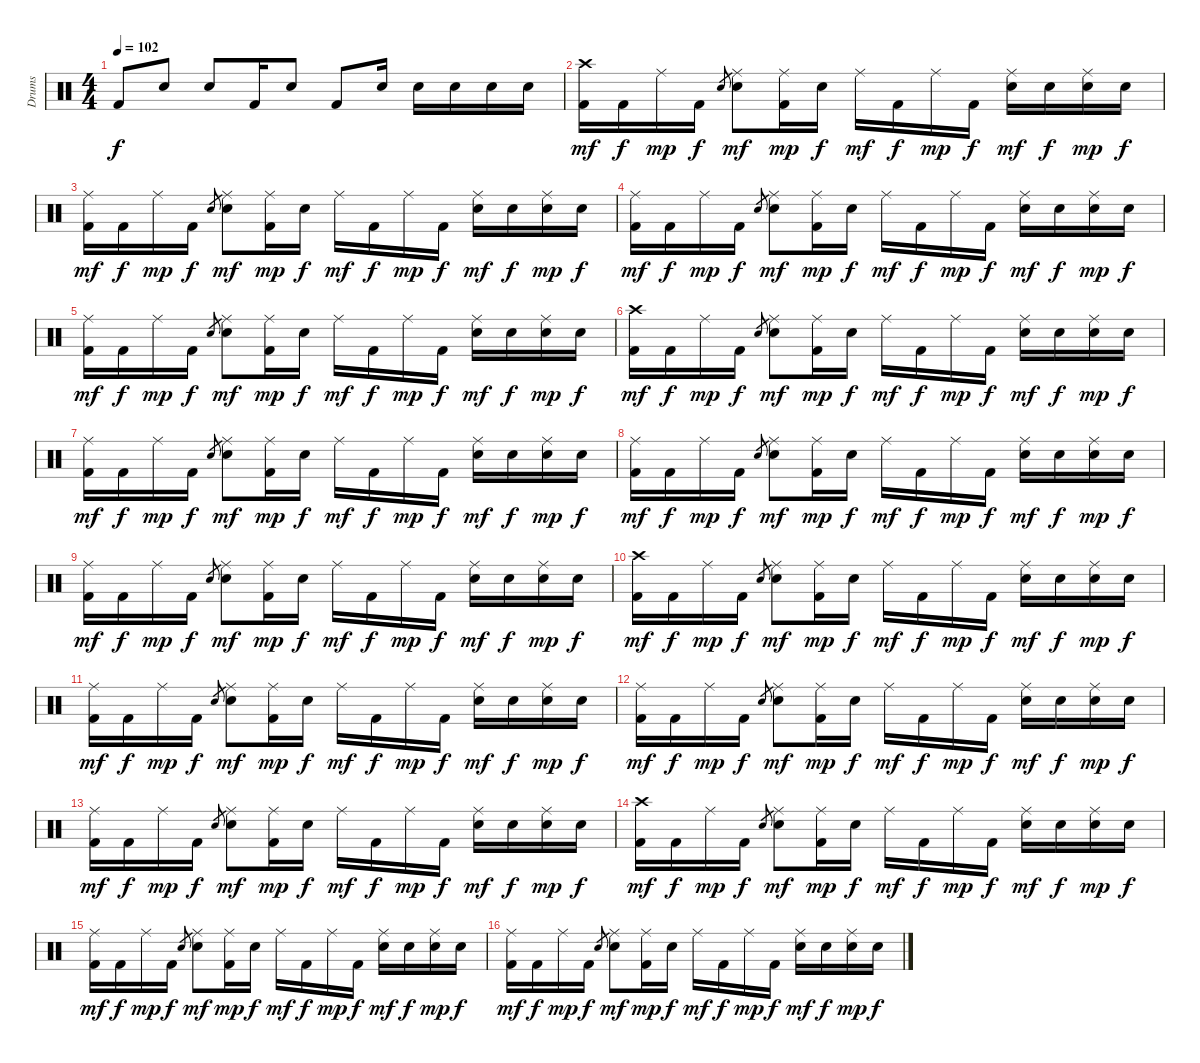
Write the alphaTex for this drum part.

\track ("Drums" "Drums") {instrument percussion}
\staff {score}
\articulation defaults
\ts (4 4)
\tempo 102
\clef neutral
\ks c "Kick (hit) 2".8{dy f} "Snare (hit) 2".8 "Snare (hit) 2".8 "Kick (hit) 2".16 "Snare (hit) 2".8 "Kick (hit) 2".8 "Snare (hit) 2".16 "Snare (hit) 2".16 "Snare (hit) 2".16 "Snare (hit) 2".16 "Snare (hit) 2".16
|
("Crash high (hit)" "Kick (hit) 2").16{dy mf} "Kick (hit) 2".16{dy f} "Ride (middle)".16{dy mp} "Kick (hit) 2".16{dy f} "Snare (hit) 2".8{gr} ("Ride (middle)" "Snare (hit) 2").8{dy mf} ("Ride (middle)" "Kick (hit) 2").16{dy mp} "Snare (hit) 2".16{dy f} "Ride (middle)".16{dy mf} "Kick (hit) 2".16{dy f} "Ride (middle)".16{dy mp} "Kick (hit) 2".16{dy f} ("Ride (middle)" "Snare (hit) 2").16{dy mf} "Snare (hit) 2".16{dy f} ("Ride (middle)" "Snare (hit) 2").16{dy mp} "Snare (hit) 2".16{dy f} |
("Ride (middle)" "Kick (hit) 2").16{dy mf} "Kick (hit) 2".16{dy f} "Ride (middle)".16{dy mp} "Kick (hit) 2".16{dy f} "Snare (hit) 2".8{gr} ("Ride (middle)" "Snare (hit) 2").8{dy mf} ("Ride (middle)" "Kick (hit) 2").16{dy mp} "Snare (hit) 2".16{dy f} "Ride (middle)".16{dy mf} "Kick (hit) 2".16{dy f} "Ride (middle)".16{dy mp} "Kick (hit) 2".16{dy f} ("Ride (middle)" "Snare (hit) 2").16{dy mf} "Snare (hit) 2".16{dy f} ("Ride (middle)" "Snare (hit) 2").16{dy mp} "Snare (hit) 2".16{dy f} |
("Ride (middle)" "Kick (hit) 2").16{dy mf} "Kick (hit) 2".16{dy f} "Ride (middle)".16{dy mp} "Kick (hit) 2".16{dy f} "Snare (hit) 2".8{gr} ("Ride (middle)" "Snare (hit) 2").8{dy mf} ("Ride (middle)" "Kick (hit) 2").16{dy mp} "Snare (hit) 2".16{dy f} "Ride (middle)".16{dy mf} "Kick (hit) 2".16{dy f} "Ride (middle)".16{dy mp} "Kick (hit) 2".16{dy f} ("Ride (middle)" "Snare (hit) 2").16{dy mf} "Snare (hit) 2".16{dy f} ("Ride (middle)" "Snare (hit) 2").16{dy mp} "Snare (hit) 2".16{dy f} |
("Ride (middle)" "Kick (hit) 2").16{dy mf} "Kick (hit) 2".16{dy f} "Ride (middle)".16{dy mp} "Kick (hit) 2".16{dy f} "Snare (hit) 2".8{gr} ("Ride (middle)" "Snare (hit) 2").8{dy mf} ("Ride (middle)" "Kick (hit) 2").16{dy mp} "Snare (hit) 2".16{dy f} "Ride (middle)".16{dy mf} "Kick (hit) 2".16{dy f} "Ride (middle)".16{dy mp} "Kick (hit) 2".16{dy f} ("Ride (middle)" "Snare (hit) 2").16{dy mf} "Snare (hit) 2".16{dy f} ("Ride (middle)" "Snare (hit) 2").16{dy mp} "Snare (hit) 2".16{dy f} |
("Crash high (hit)" "Kick (hit) 2").16{dy mf} "Kick (hit) 2".16{dy f} "Ride (middle)".16{dy mp} "Kick (hit) 2".16{dy f} "Snare (hit) 2".8{gr} ("Ride (middle)" "Snare (hit) 2").8{dy mf} ("Ride (middle)" "Kick (hit) 2").16{dy mp} "Snare (hit) 2".16{dy f} "Ride (middle)".16{dy mf} "Kick (hit) 2".16{dy f} "Ride (middle)".16{dy mp} "Kick (hit) 2".16{dy f} ("Ride (middle)" "Snare (hit) 2").16{dy mf} "Snare (hit) 2".16{dy f} ("Ride (middle)" "Snare (hit) 2").16{dy mp} "Snare (hit) 2".16{dy f} |
("Ride (middle)" "Kick (hit) 2").16{dy mf} "Kick (hit) 2".16{dy f} "Ride (middle)".16{dy mp} "Kick (hit) 2".16{dy f} "Snare (hit) 2".8{gr} ("Ride (middle)" "Snare (hit) 2").8{dy mf} ("Ride (middle)" "Kick (hit) 2").16{dy mp} "Snare (hit) 2".16{dy f} "Ride (middle)".16{dy mf} "Kick (hit) 2".16{dy f} "Ride (middle)".16{dy mp} "Kick (hit) 2".16{dy f} ("Ride (middle)" "Snare (hit) 2").16{dy mf} "Snare (hit) 2".16{dy f} ("Ride (middle)" "Snare (hit) 2").16{dy mp} "Snare (hit) 2".16{dy f} |
("Ride (middle)" "Kick (hit) 2").16{dy mf} "Kick (hit) 2".16{dy f} "Ride (middle)".16{dy mp} "Kick (hit) 2".16{dy f} "Snare (hit) 2".8{gr} ("Ride (middle)" "Snare (hit) 2").8{dy mf} ("Ride (middle)" "Kick (hit) 2").16{dy mp} "Snare (hit) 2".16{dy f} "Ride (middle)".16{dy mf} "Kick (hit) 2".16{dy f} "Ride (middle)".16{dy mp} "Kick (hit) 2".16{dy f} ("Ride (middle)" "Snare (hit) 2").16{dy mf} "Snare (hit) 2".16{dy f} ("Ride (middle)" "Snare (hit) 2").16{dy mp} "Snare (hit) 2".16{dy f} |
("Ride (middle)" "Kick (hit) 2").16{dy mf} "Kick (hit) 2".16{dy f} "Ride (middle)".16{dy mp} "Kick (hit) 2".16{dy f} "Snare (hit) 2".8{gr} ("Ride (middle)" "Snare (hit) 2").8{dy mf} ("Ride (middle)" "Kick (hit) 2").16{dy mp} "Snare (hit) 2".16{dy f} "Ride (middle)".16{dy mf} "Kick (hit) 2".16{dy f} "Ride (middle)".16{dy mp} "Kick (hit) 2".16{dy f} ("Ride (middle)" "Snare (hit) 2").16{dy mf} "Snare (hit) 2".16{dy f} ("Ride (middle)" "Snare (hit) 2").16{dy mp} "Snare (hit) 2".16{dy f} |
("Crash high (hit)" "Kick (hit) 2").16{dy mf} "Kick (hit) 2".16{dy f} "Ride (middle)".16{dy mp} "Kick (hit) 2".16{dy f} "Snare (hit) 2".8{gr} ("Ride (middle)" "Snare (hit) 2").8{dy mf} ("Ride (middle)" "Kick (hit) 2").16{dy mp} "Snare (hit) 2".16{dy f} "Ride (middle)".16{dy mf} "Kick (hit) 2".16{dy f} "Ride (middle)".16{dy mp} "Kick (hit) 2".16{dy f} ("Ride (middle)" "Snare (hit) 2").16{dy mf} "Snare (hit) 2".16{dy f} ("Ride (middle)" "Snare (hit) 2").16{dy mp} "Snare (hit) 2".16{dy f} |
("Ride (middle)" "Kick (hit) 2").16{dy mf} "Kick (hit) 2".16{dy f} "Ride (middle)".16{dy mp} "Kick (hit) 2".16{dy f} "Snare (hit) 2".8{gr} ("Ride (middle)" "Snare (hit) 2").8{dy mf} ("Ride (middle)" "Kick (hit) 2").16{dy mp} "Snare (hit) 2".16{dy f} "Ride (middle)".16{dy mf} "Kick (hit) 2".16{dy f} "Ride (middle)".16{dy mp} "Kick (hit) 2".16{dy f} ("Ride (middle)" "Snare (hit) 2").16{dy mf} "Snare (hit) 2".16{dy f} ("Ride (middle)" "Snare (hit) 2").16{dy mp} "Snare (hit) 2".16{dy f} |
("Ride (middle)" "Kick (hit) 2").16{dy mf} "Kick (hit) 2".16{dy f} "Ride (middle)".16{dy mp} "Kick (hit) 2".16{dy f} "Snare (hit) 2".8{gr} ("Ride (middle)" "Snare (hit) 2").8{dy mf} ("Ride (middle)" "Kick (hit) 2").16{dy mp} "Snare (hit) 2".16{dy f} "Ride (middle)".16{dy mf} "Kick (hit) 2".16{dy f} "Ride (middle)".16{dy mp} "Kick (hit) 2".16{dy f} ("Ride (middle)" "Snare (hit) 2").16{dy mf} "Snare (hit) 2".16{dy f} ("Ride (middle)" "Snare (hit) 2").16{dy mp} "Snare (hit) 2".16{dy f} |
("Ride (middle)" "Kick (hit) 2").16{dy mf} "Kick (hit) 2".16{dy f} "Ride (middle)".16{dy mp} "Kick (hit) 2".16{dy f} "Snare (hit) 2".8{gr} ("Ride (middle)" "Snare (hit) 2").8{dy mf} ("Ride (middle)" "Kick (hit) 2").16{dy mp} "Snare (hit) 2".16{dy f} "Ride (middle)".16{dy mf} "Kick (hit) 2".16{dy f} "Ride (middle)".16{dy mp} "Kick (hit) 2".16{dy f} ("Ride (middle)" "Snare (hit) 2").16{dy mf} "Snare (hit) 2".16{dy f} ("Ride (middle)" "Snare (hit) 2").16{dy mp} "Snare (hit) 2".16{dy f} |
("Crash high (hit)" "Kick (hit) 2").16{dy mf} "Kick (hit) 2".16{dy f} "Ride (middle)".16{dy mp} "Kick (hit) 2".16{dy f} "Snare (hit) 2".8{gr} ("Ride (middle)" "Snare (hit) 2").8{dy mf} ("Ride (middle)" "Kick (hit) 2").16{dy mp} "Snare (hit) 2".16{dy f} "Ride (middle)".16{dy mf} "Kick (hit) 2".16{dy f} "Ride (middle)".16{dy mp} "Kick (hit) 2".16{dy f} ("Ride (middle)" "Snare (hit) 2").16{dy mf} "Snare (hit) 2".16{dy f} ("Ride (middle)" "Snare (hit) 2").16{dy mp} "Snare (hit) 2".16{dy f} |
("Ride (middle)" "Kick (hit) 2").16{dy mf} "Kick (hit) 2".16{dy f} "Ride (middle)".16{dy mp} "Kick (hit) 2".16{dy f} "Snare (hit) 2".8{gr} ("Ride (middle)" "Snare (hit) 2").8{dy mf} ("Ride (middle)" "Kick (hit) 2").16{dy mp} "Snare (hit) 2".16{dy f} "Ride (middle)".16{dy mf} "Kick (hit) 2".16{dy f} "Ride (middle)".16{dy mp} "Kick (hit) 2".16{dy f} ("Ride (middle)" "Snare (hit) 2").16{dy mf} "Snare (hit) 2".16{dy f} ("Ride (middle)" "Snare (hit) 2").16{dy mp} "Snare (hit) 2".16{dy f} |
("Ride (middle)" "Kick (hit) 2").16{dy mf} "Kick (hit) 2".16{dy f} "Ride (middle)".16{dy mp} "Kick (hit) 2".16{dy f} "Snare (hit) 2".8{gr} ("Ride (middle)" "Snare (hit) 2").8{dy mf} ("Ride (middle)" "Kick (hit) 2").16{dy mp} "Snare (hit) 2".16{dy f} "Ride (middle)".16{dy mf} "Kick (hit) 2".16{dy f} "Ride (middle)".16{dy mp} "Kick (hit) 2".16{dy f} ("Ride (middle)" "Snare (hit) 2").16{dy mf} "Snare (hit) 2".16{dy f} ("Ride (middle)" "Snare (hit) 2").16{dy mp} "Snare (hit) 2".16{dy f}
